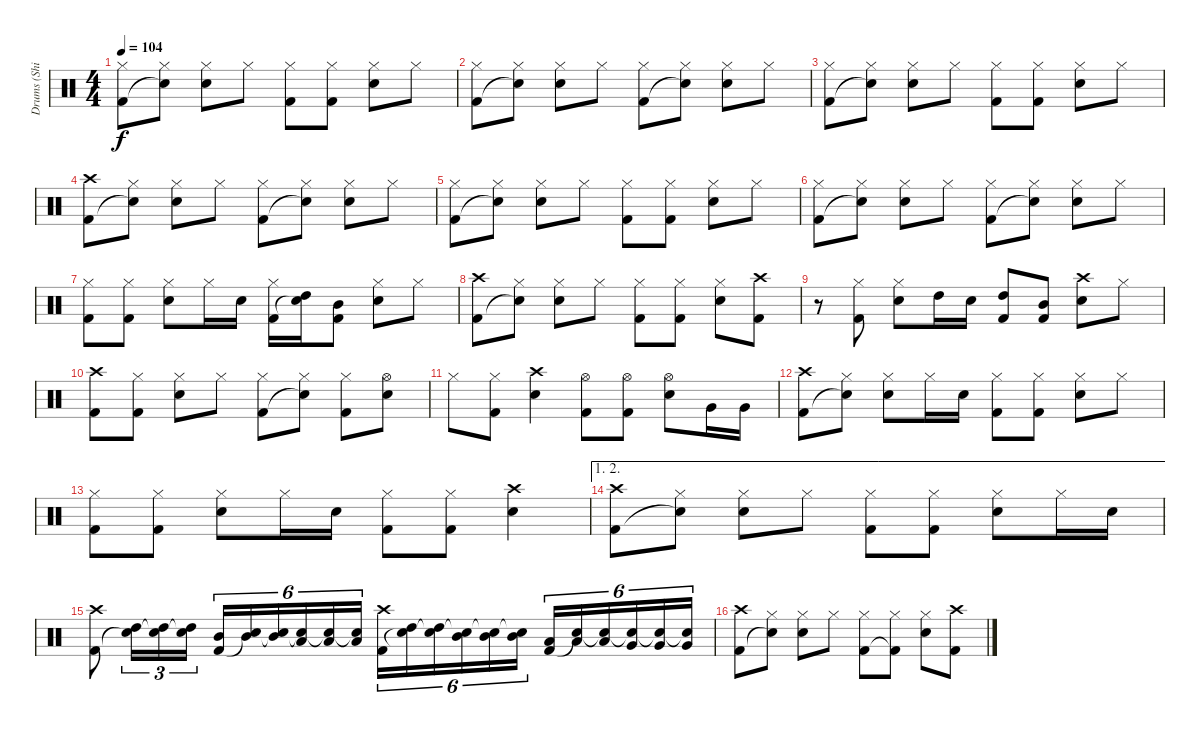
\track ("Drums (Shinya)" "Drums (Shi") {instrument percussion}
\staff {score}
\articulation defaults
\ts (4 4)
\tempo 104
\clef neutral
\ks c
("Hi-Hat (closed)" "Kick (hit) 2").8{dy f} ("Hi-Hat (closed)" "Snare (hit)"{t}).8 ("Hi-Hat (closed)" "Electric Snare (hit)").8 "Hi-Hat (closed)".8 ("Hi-Hat (closed)" "Kick (hit) 2").8 ("Hi-Hat (closed)" "Kick (hit) 2").8 ("Hi-Hat (closed)" "Electric Snare (hit)").8 "Hi-Hat (closed)".8 |
("Hi-Hat (closed)" "Kick (hit) 2").8 ("Hi-Hat (closed)" "Snare (hit)"{t}).8 ("Hi-Hat (closed)" "Electric Snare (hit)").8 "Hi-Hat (closed)".8 ("Hi-Hat (closed)" "Kick (hit) 2").8 ("Hi-Hat (closed)" "Snare (hit)"{t}).8 ("Hi-Hat (closed)" "Electric Snare (hit)").8 "Hi-Hat (closed)".8 |
("Hi-Hat (closed)" "Kick (hit) 2").8 ("Hi-Hat (closed)" "Snare (hit)"{t}).8 ("Hi-Hat (closed)" "Electric Snare (hit)").8 "Hi-Hat (closed)".8 ("Hi-Hat (closed)" "Kick (hit) 2").8 ("Hi-Hat (closed)" "Kick (hit) 2").8 ("Hi-Hat (closed)" "Electric Snare (hit)").8 "Hi-Hat (closed)".8 |
("Crash high (hit)" "Kick (hit) 2").8 ("Hi-Hat (closed)" "Snare (hit)"{t}).8 ("Hi-Hat (closed)" "Electric Snare (hit)").8 "Hi-Hat (closed)".8 ("Hi-Hat (closed)" "Kick (hit) 2").8 ("Hi-Hat (closed)" "Snare (hit)"{t}).8 ("Hi-Hat (closed)" "Electric Snare (hit)").8 "Hi-Hat (closed)".8 |
("Hi-Hat (closed)" "Kick (hit) 2").8 ("Hi-Hat (closed)" "Snare (hit)"{t}).8 ("Hi-Hat (closed)" "Electric Snare (hit)").8 "Hi-Hat (closed)".8 ("Hi-Hat (closed)" "Kick (hit) 2").8 ("Hi-Hat (closed)" "Kick (hit) 2").8 ("Hi-Hat (closed)" "Electric Snare (hit)").8 "Hi-Hat (closed)".8 |
("Hi-Hat (closed)" "Kick (hit) 2").8 ("Hi-Hat (closed)" "Snare (hit)"{t}).8 ("Hi-Hat (closed)" "Electric Snare (hit)").8 "Hi-Hat (closed)".8 ("Hi-Hat (closed)" "Kick (hit) 2").8 ("Hi-Hat (closed)" "Snare (hit)"{t}).8 ("Hi-Hat (closed)" "Electric Snare (hit)").8 "Hi-Hat (closed)".8 |
("Hi-Hat (closed)" "Kick (hit) 2").8 ("Hi-Hat (closed)" "Kick (hit) 2").8 ("Hi-Hat (closed)" "Electric Snare (hit)").8 "Hi-Hat (closed)".16 "Electric Snare (hit)".16 ("Hi-Hat (closed)" "Kick (hit) 2").16 ("High Tom (hit)" "Snare (hit)"{t}).16 ("Mid Tom (hit)" "Kick (hit) 2").8 ("Hi-Hat (closed)" "Electric Snare (hit)").8 "Hi-Hat (closed)".8 |
("Crash high (hit)" "Kick (hit) 2").8 ("Hi-Hat (closed)" "Snare (hit)"{t}).8 ("Hi-Hat (closed)" "Electric Snare (hit)").8 "Hi-Hat (closed)".8 ("Hi-Hat (closed)" "Kick (hit) 2").8 ("Hi-Hat (closed)" "Kick (hit) 2").8 ("Hi-Hat (closed)" "Electric Snare (hit)").8 ("Crash high (hit)" "Kick (hit) 2").8 |
r.8 ("Hi-Hat (closed)" "Kick (hit) 2").8 ("Hi-Hat (closed)" "Electric Snare (hit)").8 "High Tom (hit)".16 "Electric Snare (hit)".16 ("High Tom (hit)" "Kick (hit) 2").8 ("Mid Tom (hit)" "Kick (hit) 2").8 ("Crash high (hit)" "Electric Snare (hit)").8 "Hi-Hat (closed)".8 |
("Crash high (hit)" "Kick (hit) 2").8 ("Hi-Hat (closed)" "Kick (hit) 2").8 ("Hi-Hat (closed)" "Electric Snare (hit)").8 "Hi-Hat (closed)".8 ("Hi-Hat (closed)" "Kick (hit) 2").8 ("Hi-Hat (closed)" "Snare (hit)"{t}).8 ("Hi-Hat (closed)" "Kick (hit) 2").8 ("Hi-Hat (open)" "Electric Snare (hit)").8 |
"Hi-Hat (closed)".8 ("Hi-Hat (closed)" "Kick (hit) 2").8 ("Crash high (hit)" "Electric Snare (hit)").4 ("Hi-Hat (open)" "Kick (hit) 2").8 ("Hi-Hat (open)" "Kick (hit) 2").8 ("Hi-Hat (open)" "Electric Snare (hit)").8 "Very Low Tom (hit)".16 "Very Low Tom (hit)".16 |
("Crash high (hit)" "Kick (hit) 2").8 ("Hi-Hat (closed)" "Snare (hit)"{t}).8 ("Hi-Hat (closed)" "Electric Snare (hit)").8 "Hi-Hat (closed)".16 "Electric Snare (hit)".16 ("Hi-Hat (closed)" "Kick (hit) 2").8 ("Hi-Hat (closed)" "Kick (hit) 2").8 ("Hi-Hat (closed)" "Electric Snare (hit)").8 "Hi-Hat (closed)".8 |
("Hi-Hat (closed)" "Kick (hit) 2").8 ("Hi-Hat (closed)" "Kick (hit) 2").8 ("Hi-Hat (closed)" "Electric Snare (hit)").8 "Hi-Hat (closed)".16 "Electric Snare (hit)".16 ("Hi-Hat (closed)" "Kick (hit) 2").8 ("Hi-Hat (closed)" "Kick (hit) 2").8 ("Crash high (hit)" "Electric Snare (hit)").4 |
\ae (1 2)
("Crash high (hit)" "Kick (hit) 2").8 ("Hi-Hat (closed)" "Snare (hit)"{t}).8 ("Hi-Hat (closed)" "Electric Snare (hit)").8 "Hi-Hat (closed)".8 ("Hi-Hat (closed)" "Kick (hit) 2").8 ("Hi-Hat (closed)" "Kick (hit) 2").8 ("Hi-Hat (closed)" "Electric Snare (hit)").8 "Hi-Hat (closed)".16 "Electric Snare (hit)".16 |
("Crash high (hit)" "Kick (hit) 2").8 ("High Tom (hit)" "Snare (hit)"{t}).16{tu (3 2)} ("High Tom (hit)" "Snare (hit)"{t}).16{tu (3 2)} ("High Tom (hit)" "Snare (hit)"{t}).16{tu (3 2)} ("Mid Tom (hit)" "Kick (hit) 2").16{tu (6 4)} ("Mid Tom (hit)" "Snare (hit)"{t}).16{tu (6 4)} ("Mid Tom (hit)" "Snare (hit)"{t}).16{tu (6 4)} ("Low Tom (hit)" "Snare (hit)"{t}).16{tu (6 4)} ("Low Tom (hit)" "Snare (hit)"{t}).16{tu (6 4)} ("Low Tom (hit)" "Snare (hit)"{t}).16{tu (6 4)} ("Crash high (hit)" "Kick (hit) 2").16{tu (6 4)} ("High Tom (hit)" "Snare (hit)"{t}).16{tu (6 4)} ("High Tom (hit)" "Snare (hit)"{t}).16{tu (6 4)} ("Mid Tom (hit)" "Snare (hit)"{t}).16{tu (6 4)} ("Mid Tom (hit)" "Snare (hit)"{t}).16{tu (6 4)} ("Mid Tom (hit)" "Snare (hit)"{t}).16{tu (6 4)} ("Low Tom (hit)" "Kick (hit) 2").16{tu (6 4)} ("Low Tom (hit)" "Snare (hit)"{t}).16{tu (6 4)} ("Low Tom (hit)" "Snare (hit)"{t}).16{tu (6 4)} ("Very Low Tom (hit)" "Snare (hit)"{t}).16{tu (6 4)} ("Very Low Tom (hit)" "Snare (hit)"{t}).16{tu (6 4)} ("Very Low Tom (hit)" "Snare (hit)"{t}).16{tu (6 4)} |
("Crash high (hit)" "Kick (hit) 2").8 ("Hi-Hat (closed)" "Snare (hit)"{t}).8 ("Hi-Hat (closed)" "Electric Snare (hit)").8 "Hi-Hat (closed)".8 ("Hi-Hat (closed)" "Kick (hit) 2").8 ("Hi-Hat (closed)" "Kick (hit) 2"{t}).8 ("Hi-Hat (closed)" "Electric Snare (hit)").8 ("Crash high (hit)" "Kick (hit) 2").8
